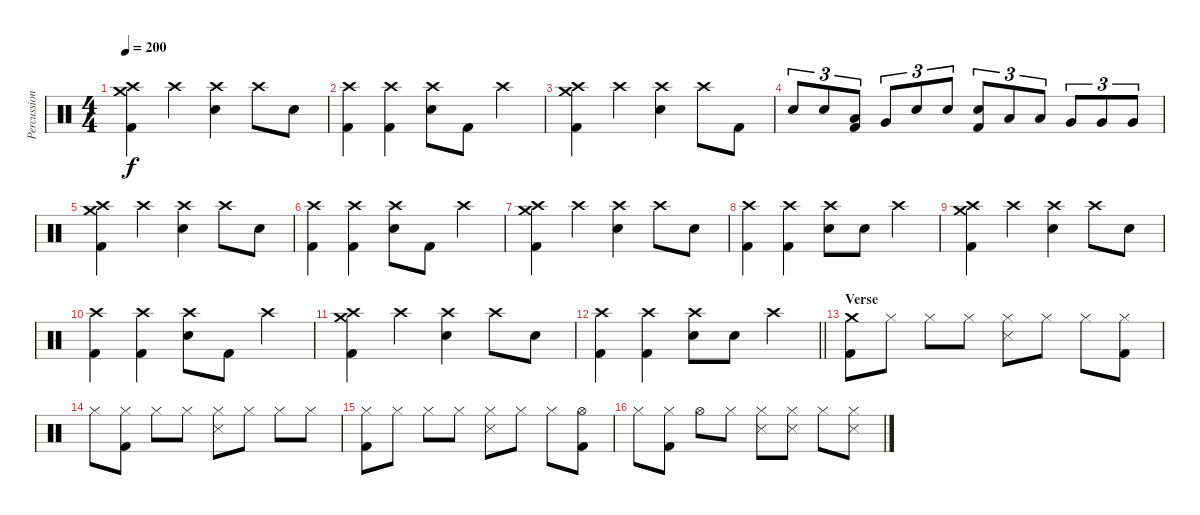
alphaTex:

\track ("Percussion" "Percussion") {instrument percussion}
\staff {score}
\articulation defaults
\ts (4 4)
\tempo 200
\clef neutral
\ks c
("Crash medium (hit)" "Crash high (hit)" "Kick (hit) 2").4{dy f} "Crash high (hit)".4 ("Crash high (hit)" "Electric Snare (hit)").4 "Crash high (hit)".8 "Electric Snare (hit)".8 |
("Crash high (hit)" "Kick (hit) 2").4 ("Crash high (hit)" "Kick (hit) 2").4 ("Crash high (hit)" "Electric Snare (hit)").8 "Kick (hit) 2".8 "Crash high (hit)".4 |
("Crash medium (hit)" "Crash high (hit)" "Kick (hit) 2").4 "Crash high (hit)".4 ("Crash high (hit)" "Electric Snare (hit)").4 "Crash high (hit)".8 "Kick (hit) 2".8 |
"Electric Snare (hit)".8{tu (3 2)} "Electric Snare (hit)".8{tu (3 2)} ("Low Tom (hit)" "Kick (hit) 2").8{tu (3 2)} "Very Low Tom (hit)".8{tu (3 2)} "Electric Snare (hit)".8{tu (3 2)} "Electric Snare (hit)".8{tu (3 2)} ("Electric Snare (hit)" "Kick (hit) 2").8{tu (3 2)} "Low Tom (hit)".8{tu (3 2)} "Low Tom (hit)".8{tu (3 2)} "Very Low Tom (hit)".8{tu (3 2)} "Very Low Tom (hit)".8{tu (3 2)} "Very Low Tom (hit)".8{tu (3 2)} |
("Crash medium (hit)" "Crash high (hit)" "Kick (hit) 2").4 "Crash high (hit)".4 ("Crash high (hit)" "Electric Snare (hit)").4 "Crash high (hit)".8 "Electric Snare (hit)".8 |
("Crash high (hit)" "Kick (hit) 2").4 ("Crash high (hit)" "Kick (hit) 2").4 ("Crash high (hit)" "Electric Snare (hit)").8 "Kick (hit) 2".8 "Crash high (hit)".4 |
("Crash medium (hit)" "Crash high (hit)" "Kick (hit) 2").4 "Crash high (hit)".4 ("Crash high (hit)" "Electric Snare (hit)").4 "Crash high (hit)".8 "Electric Snare (hit)".8 |
("Crash high (hit)" "Kick (hit) 2").4 ("Crash high (hit)" "Kick (hit) 2").4 ("Crash high (hit)" "Electric Snare (hit)").8 "Electric Snare (hit)".8 "Crash high (hit)".4 |
("Crash medium (hit)" "Crash high (hit)" "Kick (hit) 2").4 "Crash high (hit)".4 ("Crash high (hit)" "Electric Snare (hit)").4 "Crash high (hit)".8 "Electric Snare (hit)".8 |
("Crash high (hit)" "Kick (hit) 2").4 ("Crash high (hit)" "Kick (hit) 2").4 ("Crash high (hit)" "Electric Snare (hit)").8 "Kick (hit) 2".8 "Crash high (hit)".4 |
("Crash medium (hit)" "Crash high (hit)" "Kick (hit) 2").4 "Crash high (hit)".4 ("Crash high (hit)" "Electric Snare (hit)").4 "Crash high (hit)".8 "Electric Snare (hit)".8 |
\barLineRight lightlight
("Crash high (hit)" "Kick (hit) 2").4 ("Crash high (hit)" "Kick (hit) 2").4 ("Crash high (hit)" "Electric Snare (hit)").8 "Electric Snare (hit)".8 "Crash high (hit)".4 |
\section ("" "Verse")
("Crash medium (hit)" "Kick (hit) 2").8 "Hi-Hat (closed)".8 "Hi-Hat (closed)".8 "Hi-Hat (closed)".8 ("Hi-Hat (closed)" "Snare (side stick) 3").8 "Hi-Hat (closed)".8 "Hi-Hat (closed)".8 ("Hi-Hat (closed)" "Kick (hit) 2").8 |
"Hi-Hat (closed)".8 ("Hi-Hat (closed)" "Kick (hit) 2").8 "Hi-Hat (closed)".8 "Hi-Hat (closed)".8 ("Hi-Hat (closed)" "Snare (side stick) 3").8 "Hi-Hat (closed)".8 "Hi-Hat (closed)".8 "Hi-Hat (closed)".8 |
("Hi-Hat (closed)" "Kick (hit) 2").8 "Hi-Hat (closed)".8 "Hi-Hat (closed)".8 "Hi-Hat (closed)".8 ("Hi-Hat (closed)" "Snare (side stick) 3").8 "Hi-Hat (closed)".8 "Hi-Hat (closed)".8 ("Hi-Hat (open)" "Kick (hit) 2").8 |
"Hi-Hat (closed)".8 ("Hi-Hat (closed)" "Kick (hit) 2").8 "Hi-Hat (open)".8 "Hi-Hat (closed)".8 ("Hi-Hat (closed)" "Snare (side stick) 3").8 ("Hi-Hat (closed)" "Snare (side stick) 3").8 "Hi-Hat (closed)".8 ("Hi-Hat (closed)" "Snare (side stick) 3").8
